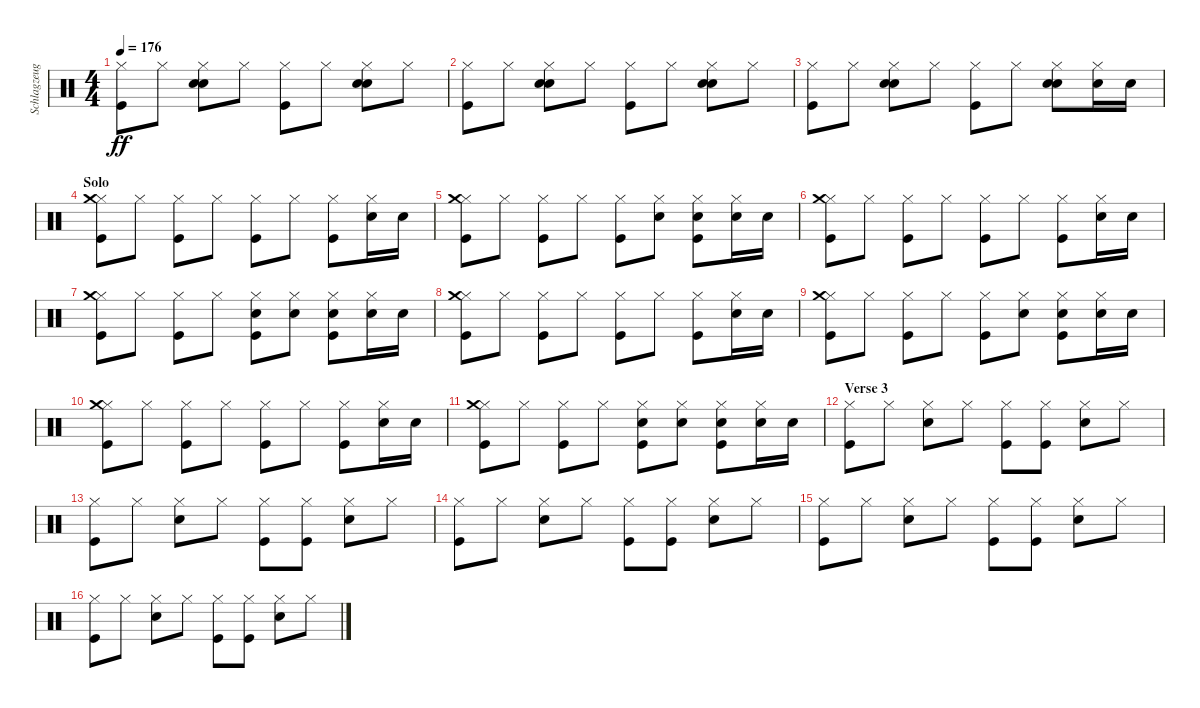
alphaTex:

\track ("Schlagzeug - Bela B." "Schlagzeug") {instrument percussion}
\staff {score}
\articulation defaults
\ts (4 4)
\tempo 176
\clef neutral
\ks c
("Kick (hit)" "Hi-Hat (closed)").8{dy ff} "Hi-Hat (closed)".8 ("Hi-Hat (closed)" "Hand Clap (hit)" "Electric Snare (hit)").8 "Hi-Hat (closed)".8 ("Hi-Hat (closed)" "Kick (hit)").8 "Hi-Hat (closed)".8 ("Hi-Hat (closed)" "Hand Clap (hit)" "Electric Snare (hit)").8 "Hi-Hat (closed)".8 |
("Kick (hit)" "Hi-Hat (closed)").8 "Hi-Hat (closed)".8 ("Hi-Hat (closed)" "Hand Clap (hit)" "Electric Snare (hit)").8 "Hi-Hat (closed)".8 ("Hi-Hat (closed)" "Kick (hit)").8 "Hi-Hat (closed)".8 ("Hi-Hat (closed)" "Hand Clap (hit)" "Electric Snare (hit)").8 "Hi-Hat (closed)".8 |
("Kick (hit)" "Hi-Hat (closed)").8 "Hi-Hat (closed)".8 ("Hi-Hat (closed)" "Hand Clap (hit)" "Electric Snare (hit)").8 "Hi-Hat (closed)".8 ("Hi-Hat (closed)" "Kick (hit)").8 "Hi-Hat (closed)".8 ("Hi-Hat (closed)" "Hand Clap (hit)" "Electric Snare (hit)").8 ("Hi-Hat (closed)" "Electric Snare (hit)").16 "Electric Snare (hit)".16 |
\section ("" "Solo")
("Kick (hit)" "Hi-Hat (closed)" "Crash medium (hit)").8 "Hi-Hat (closed)".8 ("Kick (hit)" "Hi-Hat (closed)").8 "Hi-Hat (closed)".8 ("Kick (hit)" "Hi-Hat (closed)").8 "Hi-Hat (closed)".8 ("Kick (hit)" "Hi-Hat (closed)").8 ("Hi-Hat (closed)" "Electric Snare (hit)").16 "Electric Snare (hit)".16 |
("Kick (hit)" "Hi-Hat (closed)" "Crash medium (hit)").8 "Hi-Hat (closed)".8 ("Kick (hit)" "Hi-Hat (closed)").8 "Hi-Hat (closed)".8 ("Kick (hit)" "Hi-Hat (closed)").8 ("Hi-Hat (closed)" "Electric Snare (hit)").8 ("Kick (hit)" "Hi-Hat (closed)" "Electric Snare (hit)").8 ("Hi-Hat (closed)" "Electric Snare (hit)").16 "Electric Snare (hit)".16 |
("Kick (hit)" "Hi-Hat (closed)" "Crash medium (hit)").8 "Hi-Hat (closed)".8 ("Kick (hit)" "Hi-Hat (closed)").8 "Hi-Hat (closed)".8 ("Kick (hit)" "Hi-Hat (closed)").8 "Hi-Hat (closed)".8 ("Kick (hit)" "Hi-Hat (closed)").8 ("Hi-Hat (closed)" "Electric Snare (hit)").16 "Electric Snare (hit)".16 |
("Kick (hit)" "Hi-Hat (closed)" "Crash medium (hit)").8 "Hi-Hat (closed)".8 ("Kick (hit)" "Hi-Hat (closed)").8 "Hi-Hat (closed)".8 ("Kick (hit)" "Hi-Hat (closed)" "Electric Snare (hit)").8 ("Hi-Hat (closed)" "Electric Snare (hit)").8 ("Kick (hit)" "Hi-Hat (closed)" "Electric Snare (hit)").8 ("Hi-Hat (closed)" "Electric Snare (hit)").16 "Electric Snare (hit)".16 |
("Kick (hit)" "Hi-Hat (closed)" "Crash medium (hit)").8 "Hi-Hat (closed)".8 ("Kick (hit)" "Hi-Hat (closed)").8 "Hi-Hat (closed)".8 ("Kick (hit)" "Hi-Hat (closed)").8 "Hi-Hat (closed)".8 ("Kick (hit)" "Hi-Hat (closed)").8 ("Hi-Hat (closed)" "Electric Snare (hit)").16 "Electric Snare (hit)".16 |
("Kick (hit)" "Hi-Hat (closed)" "Crash medium (hit)").8 "Hi-Hat (closed)".8 ("Kick (hit)" "Hi-Hat (closed)").8 "Hi-Hat (closed)".8 ("Kick (hit)" "Hi-Hat (closed)").8 ("Hi-Hat (closed)" "Electric Snare (hit)").8 ("Kick (hit)" "Hi-Hat (closed)" "Electric Snare (hit)").8 ("Hi-Hat (closed)" "Electric Snare (hit)").16 "Electric Snare (hit)".16 |
("Kick (hit)" "Hi-Hat (closed)" "Crash medium (hit)").8 "Hi-Hat (closed)".8 ("Kick (hit)" "Hi-Hat (closed)").8 "Hi-Hat (closed)".8 ("Kick (hit)" "Hi-Hat (closed)").8 "Hi-Hat (closed)".8 ("Kick (hit)" "Hi-Hat (closed)").8 ("Hi-Hat (closed)" "Electric Snare (hit)").16 "Electric Snare (hit)".16 |
("Kick (hit)" "Hi-Hat (closed)" "Crash medium (hit)").8 "Hi-Hat (closed)".8 ("Kick (hit)" "Hi-Hat (closed)").8 "Hi-Hat (closed)".8 ("Kick (hit)" "Hi-Hat (closed)" "Electric Snare (hit)").8 ("Hi-Hat (closed)" "Electric Snare (hit)").8 ("Kick (hit)" "Hi-Hat (closed)" "Electric Snare (hit)").8 ("Hi-Hat (closed)" "Electric Snare (hit)").16 "Electric Snare (hit)".16 |
\section ("" "Verse 3")
("Kick (hit)" "Hi-Hat (closed)").8 "Hi-Hat (closed)".8 ("Hi-Hat (closed)" "Electric Snare (hit)").8 "Hi-Hat (closed)".8 ("Hi-Hat (closed)" "Kick (hit)").8 ("Hi-Hat (closed)" "Kick (hit)").8 ("Hi-Hat (closed)" "Electric Snare (hit)").8 "Hi-Hat (closed)".8 |
("Kick (hit)" "Hi-Hat (closed)").8 "Hi-Hat (closed)".8 ("Hi-Hat (closed)" "Electric Snare (hit)").8 "Hi-Hat (closed)".8 ("Hi-Hat (closed)" "Kick (hit)").8 ("Hi-Hat (closed)" "Kick (hit)").8 ("Hi-Hat (closed)" "Electric Snare (hit)").8 "Hi-Hat (closed)".8 |
("Kick (hit)" "Hi-Hat (closed)").8 "Hi-Hat (closed)".8 ("Hi-Hat (closed)" "Electric Snare (hit)").8 "Hi-Hat (closed)".8 ("Hi-Hat (closed)" "Kick (hit)").8 ("Hi-Hat (closed)" "Kick (hit)").8 ("Hi-Hat (closed)" "Electric Snare (hit)").8 "Hi-Hat (closed)".8 |
("Kick (hit)" "Hi-Hat (closed)").8 "Hi-Hat (closed)".8 ("Hi-Hat (closed)" "Electric Snare (hit)").8 "Hi-Hat (closed)".8 ("Hi-Hat (closed)" "Kick (hit)").8 ("Hi-Hat (closed)" "Kick (hit)").8 ("Hi-Hat (closed)" "Electric Snare (hit)").8 "Hi-Hat (closed)".8 |
("Kick (hit)" "Hi-Hat (closed)").8 "Hi-Hat (closed)".8 ("Hi-Hat (closed)" "Electric Snare (hit)").8 "Hi-Hat (closed)".8 ("Hi-Hat (closed)" "Kick (hit)").8 ("Hi-Hat (closed)" "Kick (hit)").8 ("Hi-Hat (closed)" "Electric Snare (hit)").8 "Hi-Hat (closed)".8
